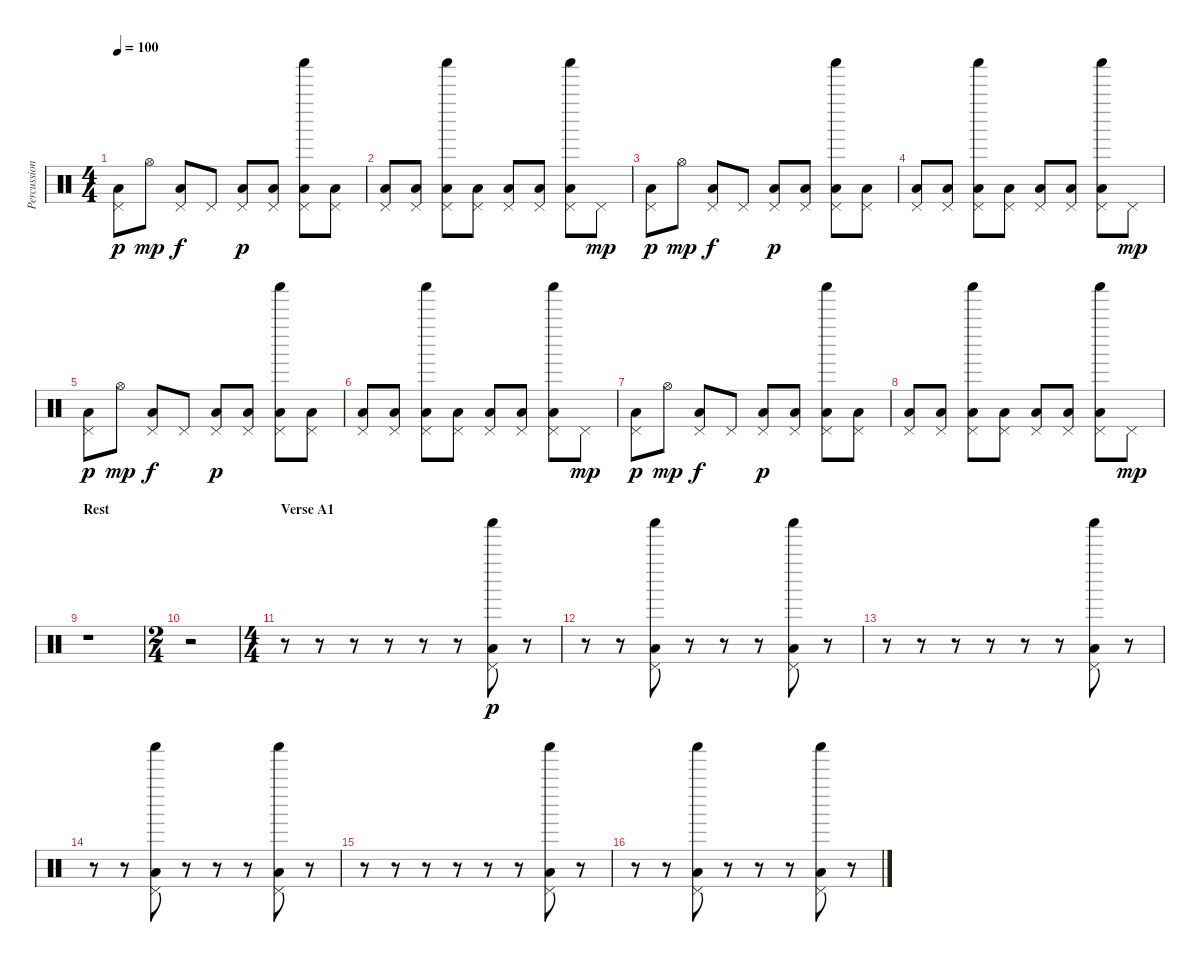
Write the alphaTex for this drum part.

\track ("Percussions" "Percussion") {instrument percussion}
\staff {score}
\articulation defaults
\ts (4 4)
\tempo 100
\clef neutral
\ks c
("Pedal Hi-Hat (hit)" "Low Floor Tom (hit)").8{dy p} "Hi-Hat (open)".8{dy mp} ("Pedal Hi-Hat (hit)" "Low Floor Tom (hit)").8{dy f} "Pedal Hi-Hat (hit)".8 ("Pedal Hi-Hat (hit)" "Low Floor Tom (hit)").8{dy p} ("Pedal Hi-Hat (hit)" "Low Floor Tom (hit)").8 ("Pedal Hi-Hat (hit)" "Shaker (hit)" "Low Floor Tom (hit)").8 ("Pedal Hi-Hat (hit)" "Low Floor Tom (hit)").8 |
("Pedal Hi-Hat (hit)" "Low Floor Tom (hit)").8 ("Pedal Hi-Hat (hit)" "Low Floor Tom (hit)").8 ("Pedal Hi-Hat (hit)" "Shaker (hit)" "Low Floor Tom (hit)").8 ("Pedal Hi-Hat (hit)" "Low Floor Tom (hit)").8 ("Pedal Hi-Hat (hit)" "Low Floor Tom (hit)").8 ("Pedal Hi-Hat (hit)" "Low Floor Tom (hit)").8 ("Pedal Hi-Hat (hit)" "Shaker (hit)" "Low Floor Tom (hit)").8 "Pedal Hi-Hat (hit)".8{dy mp} |
("Pedal Hi-Hat (hit)" "Low Floor Tom (hit)").8{dy p} "Hi-Hat (open)".8{dy mp} ("Pedal Hi-Hat (hit)" "Low Floor Tom (hit)").8{dy f} "Pedal Hi-Hat (hit)".8 ("Pedal Hi-Hat (hit)" "Low Floor Tom (hit)").8{dy p} ("Pedal Hi-Hat (hit)" "Low Floor Tom (hit)").8 ("Pedal Hi-Hat (hit)" "Shaker (hit)" "Low Floor Tom (hit)").8 ("Pedal Hi-Hat (hit)" "Low Floor Tom (hit)").8 |
("Pedal Hi-Hat (hit)" "Low Floor Tom (hit)").8 ("Pedal Hi-Hat (hit)" "Low Floor Tom (hit)").8 ("Pedal Hi-Hat (hit)" "Shaker (hit)" "Low Floor Tom (hit)").8 ("Pedal Hi-Hat (hit)" "Low Floor Tom (hit)").8 ("Pedal Hi-Hat (hit)" "Low Floor Tom (hit)").8 ("Pedal Hi-Hat (hit)" "Low Floor Tom (hit)").8 ("Pedal Hi-Hat (hit)" "Shaker (hit)" "Low Floor Tom (hit)").8 "Pedal Hi-Hat (hit)".8{dy mp} |
("Pedal Hi-Hat (hit)" "Low Floor Tom (hit)").8{dy p} "Hi-Hat (open)".8{dy mp} ("Pedal Hi-Hat (hit)" "Low Floor Tom (hit)").8{dy f} "Pedal Hi-Hat (hit)".8 ("Pedal Hi-Hat (hit)" "Low Floor Tom (hit)").8{dy p} ("Pedal Hi-Hat (hit)" "Low Floor Tom (hit)").8 ("Pedal Hi-Hat (hit)" "Shaker (hit)" "Low Floor Tom (hit)").8 ("Pedal Hi-Hat (hit)" "Low Floor Tom (hit)").8 |
("Pedal Hi-Hat (hit)" "Low Floor Tom (hit)").8 ("Pedal Hi-Hat (hit)" "Low Floor Tom (hit)").8 ("Pedal Hi-Hat (hit)" "Shaker (hit)" "Low Floor Tom (hit)").8 ("Pedal Hi-Hat (hit)" "Low Floor Tom (hit)").8 ("Pedal Hi-Hat (hit)" "Low Floor Tom (hit)").8 ("Pedal Hi-Hat (hit)" "Low Floor Tom (hit)").8 ("Pedal Hi-Hat (hit)" "Shaker (hit)" "Low Floor Tom (hit)").8 "Pedal Hi-Hat (hit)".8{dy mp} |
("Pedal Hi-Hat (hit)" "Low Floor Tom (hit)").8{dy p} "Hi-Hat (open)".8{dy mp} ("Pedal Hi-Hat (hit)" "Low Floor Tom (hit)").8{dy f} "Pedal Hi-Hat (hit)".8 ("Pedal Hi-Hat (hit)" "Low Floor Tom (hit)").8{dy p} ("Pedal Hi-Hat (hit)" "Low Floor Tom (hit)").8 ("Pedal Hi-Hat (hit)" "Shaker (hit)" "Low Floor Tom (hit)").8 ("Pedal Hi-Hat (hit)" "Low Floor Tom (hit)").8 |
("Pedal Hi-Hat (hit)" "Low Floor Tom (hit)").8 ("Pedal Hi-Hat (hit)" "Low Floor Tom (hit)").8 ("Pedal Hi-Hat (hit)" "Shaker (hit)" "Low Floor Tom (hit)").8 ("Pedal Hi-Hat (hit)" "Low Floor Tom (hit)").8 ("Pedal Hi-Hat (hit)" "Low Floor Tom (hit)").8 ("Pedal Hi-Hat (hit)" "Low Floor Tom (hit)").8 ("Pedal Hi-Hat (hit)" "Shaker (hit)" "Low Floor Tom (hit)").8 "Pedal Hi-Hat (hit)".8{dy mp} |
\section ("" "Rest")
r.1 |
\ts (2 4)
r.2 |
\ts (4 4)
\section ("" "Verse A1")
r.8 r.8 r.8 r.8 r.8 r.8 ("Pedal Hi-Hat (hit)" "Shaker (hit)" "Low Floor Tom (hit)").8{dy p} r.8 |
r.8 r.8 ("Pedal Hi-Hat (hit)" "Shaker (hit)" "Low Floor Tom (hit)").8 r.8 r.8 r.8 ("Pedal Hi-Hat (hit)" "Shaker (hit)" "Low Floor Tom (hit)").8 r.8 |
r.8 r.8 r.8 r.8 r.8 r.8 ("Pedal Hi-Hat (hit)" "Shaker (hit)" "Low Floor Tom (hit)").8 r.8 |
r.8 r.8 ("Pedal Hi-Hat (hit)" "Shaker (hit)" "Low Floor Tom (hit)").8 r.8 r.8 r.8 ("Pedal Hi-Hat (hit)" "Shaker (hit)" "Low Floor Tom (hit)").8 r.8 |
r.8 r.8 r.8 r.8 r.8 r.8 ("Pedal Hi-Hat (hit)" "Shaker (hit)" "Low Floor Tom (hit)").8 r.8 |
r.8 r.8 ("Pedal Hi-Hat (hit)" "Shaker (hit)" "Low Floor Tom (hit)").8 r.8 r.8 r.8 ("Pedal Hi-Hat (hit)" "Shaker (hit)" "Low Floor Tom (hit)").8 r.8
